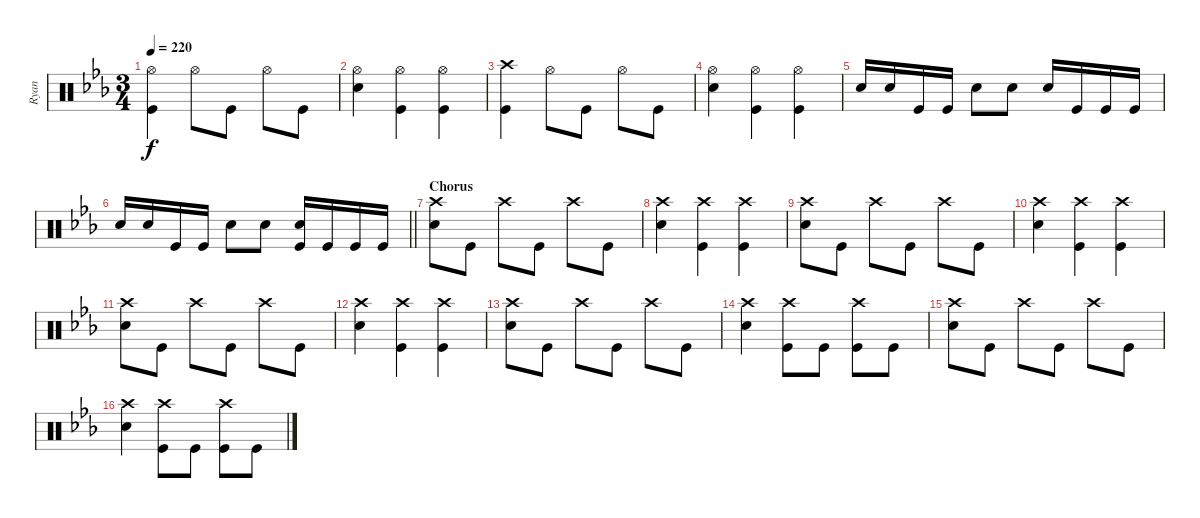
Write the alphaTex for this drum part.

\track ("Ryan" "Ryan") {instrument percussion}
\staff {score}
\articulation defaults
\ts (3 4)
\tempo 220
\clef neutral
\ks cminor
("Kick (hit)" "Hi-Hat (open)").4{dy f} "Hi-Hat (open)".8 "Kick (hit)".8 "Hi-Hat (open)".8 "Kick (hit)".8 |
("Snare (hit) 2" "Hi-Hat (open)").4 ("Kick (hit)" "Hi-Hat (open)").4 ("Kick (hit)" "Hi-Hat (open)").4 |
("Crash high (hit)" "Kick (hit)").4 "Hi-Hat (open)".8 "Kick (hit)".8 "Hi-Hat (open)".8 "Kick (hit)".8 |
("Snare (hit) 2" "Hi-Hat (open)").4 ("Kick (hit)" "Hi-Hat (open)").4 ("Kick (hit)" "Hi-Hat (open)").4 |
"Snare (hit) 2".16 "Snare (hit) 2".16 "Kick (hit)".16 "Kick (hit)".16 "Snare (hit) 2".8 "Snare (hit) 2".8 "Snare (hit) 2".16 "Kick (hit)".16 "Kick (hit)".16 "Kick (hit)".16 |
\barLineRight lightlight "Snare (hit) 2".16 "Snare (hit) 2".16 "Kick (hit)".16 "Kick (hit)".16 "Snare (hit) 2".8 "Snare (hit) 2".8
("Snare (hit) 2" "Kick (hit)").16 "Kick (hit)".16 "Kick (hit)".16 "Kick (hit)".16 |
\section ("" "Chorus")
("Snare (hit) 2" "Crash high (hit)").8 "Kick (hit)".8 "Crash high (hit)".8 "Kick (hit)".8 "Crash high (hit)".8 "Kick (hit)".8 |
("Crash high (hit)" "Snare (hit) 2").4 ("Kick (hit)" "Crash high (hit)").4 ("Crash high (hit)" "Kick (hit)").4 |
("Snare (hit) 2" "Crash high (hit)").8 "Kick (hit)".8 "Crash high (hit)".8 "Kick (hit)".8 "Crash high (hit)".8 "Kick (hit)".8 |
("Crash high (hit)" "Snare (hit) 2").4 ("Kick (hit)" "Crash high (hit)").4 ("Crash high (hit)" "Kick (hit)").4 |
("Snare (hit) 2" "Crash high (hit)").8 "Kick (hit)".8 "Crash high (hit)".8 "Kick (hit)".8 "Crash high (hit)".8 "Kick (hit)".8 |
("Crash high (hit)" "Snare (hit) 2").4 ("Kick (hit)" "Crash high (hit)").4 ("Crash high (hit)" "Kick (hit)").4 |
("Snare (hit) 2" "Crash high (hit)").8 "Kick (hit)".8 "Crash high (hit)".8 "Kick (hit)".8 "Crash high (hit)".8 "Kick (hit)".8 |
("Crash high (hit)" "Snare (hit) 2").4 ("Crash high (hit)" "Kick (hit)").8 "Kick (hit)".8 ("Kick (hit)" "Crash high (hit)").8 "Kick (hit)".8 |
("Snare (hit) 2" "Crash high (hit)").8 "Kick (hit)".8 "Crash high (hit)".8 "Kick (hit)".8 "Crash high (hit)".8 "Kick (hit)".8 |
("Crash high (hit)" "Snare (hit) 2").4 ("Crash high (hit)" "Kick (hit)").8 "Kick (hit)".8 ("Kick (hit)" "Crash high (hit)").8 "Kick (hit)".8
